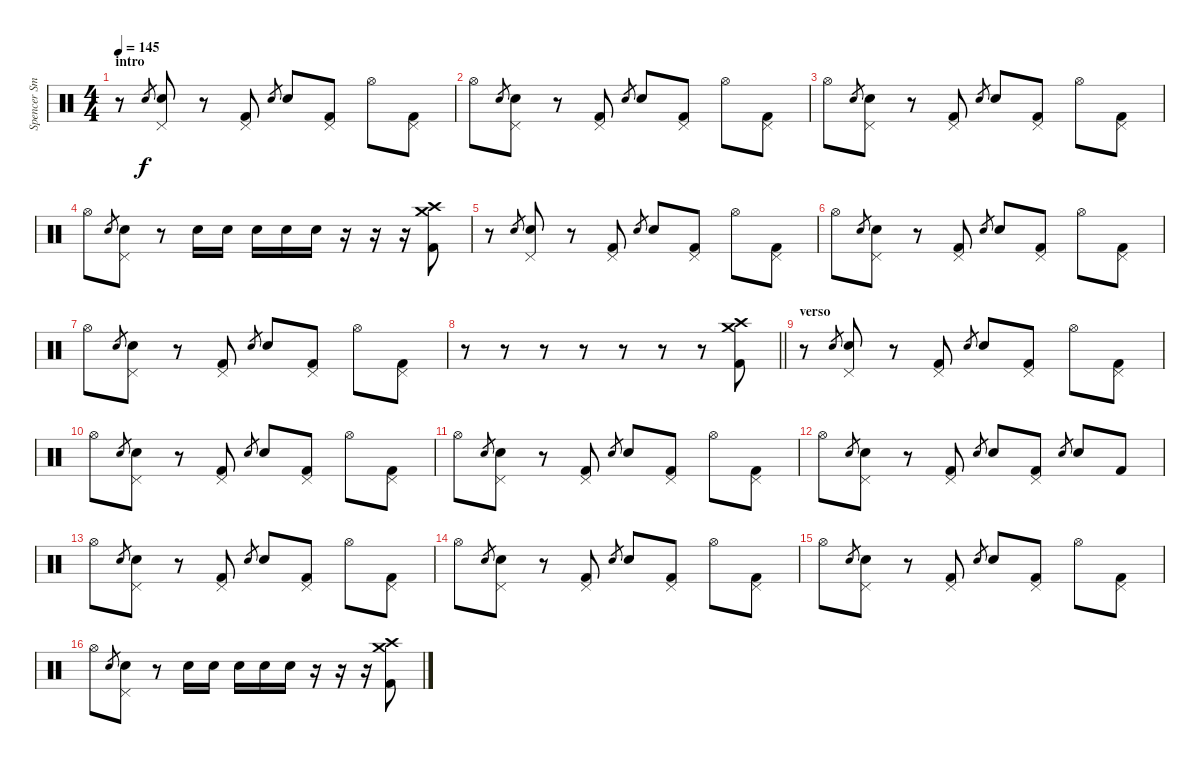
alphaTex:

\track ("Spencer Smith" "Spencer Sm") {instrument percussion}
\staff {score}
\articulation defaults
\ts (4 4)
\section ("" "intro")
\tempo 145
\clef neutral
\ks c
r.8{dy f} "Electric Snare (hit)".8{gr} ("Pedal Hi-Hat (hit)" "Electric Snare (hit)").8 r.8 ("Pedal Hi-Hat (hit)" "Kick (hit) 2").8 "Electric Snare (hit)".8{gr} "Electric Snare (hit)".8 ("Pedal Hi-Hat (hit)" "Kick (hit) 2").8 "Hi-Hat (open)".8 ("Pedal Hi-Hat (hit)" "Kick (hit) 2").8 |
"Hi-Hat (open)".8 "Electric Snare (hit)".8{gr} ("Pedal Hi-Hat (hit)" "Electric Snare (hit)").8 r.8 ("Pedal Hi-Hat (hit)" "Kick (hit) 2").8 "Electric Snare (hit)".8{gr} "Electric Snare (hit)".8 ("Pedal Hi-Hat (hit)" "Kick (hit) 2").8 "Hi-Hat (open)".8 ("Pedal Hi-Hat (hit)" "Kick (hit) 2").8 |
"Hi-Hat (open)".8 "Electric Snare (hit)".8{gr} ("Pedal Hi-Hat (hit)" "Electric Snare (hit)").8 r.8 ("Pedal Hi-Hat (hit)" "Kick (hit) 2").8 "Electric Snare (hit)".8{gr} "Electric Snare (hit)".8 ("Pedal Hi-Hat (hit)" "Kick (hit) 2").8 "Hi-Hat (open)".8 ("Pedal Hi-Hat (hit)" "Kick (hit) 2").8 |
"Hi-Hat (open)".8 "Electric Snare (hit)".8{gr} ("Pedal Hi-Hat (hit)" "Electric Snare (hit)").8 r.8 "Electric Snare (hit)".16 "Electric Snare (hit)".16 "Electric Snare (hit)".16 "Electric Snare (hit)".16 "Electric Snare (hit)".16 r.16 r.16 r.16 ("Crash medium (hit)" "Crash high (hit)" "Kick (hit) 2").8 |
r.8 "Electric Snare (hit)".8{gr} ("Pedal Hi-Hat (hit)" "Electric Snare (hit)").8 r.8 ("Pedal Hi-Hat (hit)" "Kick (hit) 2").8 "Electric Snare (hit)".8{gr} "Electric Snare (hit)".8 ("Pedal Hi-Hat (hit)" "Kick (hit) 2").8 "Hi-Hat (open)".8 ("Pedal Hi-Hat (hit)" "Kick (hit) 2").8 |
"Hi-Hat (open)".8 "Electric Snare (hit)".8{gr} ("Pedal Hi-Hat (hit)" "Electric Snare (hit)").8 r.8 ("Pedal Hi-Hat (hit)" "Kick (hit) 2").8 "Electric Snare (hit)".8{gr} "Electric Snare (hit)".8 ("Pedal Hi-Hat (hit)" "Kick (hit) 2").8 "Hi-Hat (open)".8 ("Pedal Hi-Hat (hit)" "Kick (hit) 2").8 |
"Hi-Hat (open)".8 "Electric Snare (hit)".8{gr} ("Pedal Hi-Hat (hit)" "Electric Snare (hit)").8 r.8 ("Pedal Hi-Hat (hit)" "Kick (hit) 2").8 "Electric Snare (hit)".8{gr} "Electric Snare (hit)".8 ("Pedal Hi-Hat (hit)" "Kick (hit) 2").8 "Hi-Hat (open)".8 ("Pedal Hi-Hat (hit)" "Kick (hit) 2").8 |
\barLineRight lightlight
r.8 r.8 r.8 r.8 r.8 r.8 r.8 ("Crash medium (hit)" "Crash high (hit)" "Kick (hit) 2").8 |
\section ("" "verso")
r.8 "Electric Snare (hit)".8{gr} ("Pedal Hi-Hat (hit)" "Electric Snare (hit)").8 r.8 ("Pedal Hi-Hat (hit)" "Kick (hit) 2").8 "Electric Snare (hit)".8{gr} "Electric Snare (hit)".8 ("Pedal Hi-Hat (hit)" "Kick (hit) 2").8 "Hi-Hat (open)".8 ("Pedal Hi-Hat (hit)" "Kick (hit) 2").8 |
"Hi-Hat (open)".8 "Electric Snare (hit)".8{gr} ("Pedal Hi-Hat (hit)" "Electric Snare (hit)").8 r.8 ("Pedal Hi-Hat (hit)" "Kick (hit) 2").8 "Electric Snare (hit)".8{gr} "Electric Snare (hit)".8 ("Pedal Hi-Hat (hit)" "Kick (hit) 2").8 "Hi-Hat (open)".8 ("Pedal Hi-Hat (hit)" "Kick (hit) 2").8 |
"Hi-Hat (open)".8 "Electric Snare (hit)".8{gr} ("Pedal Hi-Hat (hit)" "Electric Snare (hit)").8 r.8 ("Pedal Hi-Hat (hit)" "Kick (hit) 2").8 "Electric Snare (hit)".8{gr} "Electric Snare (hit)".8 ("Pedal Hi-Hat (hit)" "Kick (hit) 2").8 "Hi-Hat (open)".8 ("Pedal Hi-Hat (hit)" "Kick (hit) 2").8 |
"Hi-Hat (open)".8 "Electric Snare (hit)".8{gr} ("Pedal Hi-Hat (hit)" "Electric Snare (hit)").8 r.8 ("Pedal Hi-Hat (hit)" "Kick (hit) 2").8 "Electric Snare (hit)".8{gr} "Electric Snare (hit)".8 ("Pedal Hi-Hat (hit)" "Kick (hit) 2").8 "Electric Snare (hit)".8{gr} "Electric Snare (hit)".8 "Kick (hit) 2".8 |
"Hi-Hat (open)".8 "Electric Snare (hit)".8{gr} ("Pedal Hi-Hat (hit)" "Electric Snare (hit)").8 r.8 ("Pedal Hi-Hat (hit)" "Kick (hit) 2").8 "Electric Snare (hit)".8{gr} "Electric Snare (hit)".8 ("Pedal Hi-Hat (hit)" "Kick (hit) 2").8 "Hi-Hat (open)".8 ("Pedal Hi-Hat (hit)" "Kick (hit) 2").8 |
"Hi-Hat (open)".8 "Electric Snare (hit)".8{gr} ("Pedal Hi-Hat (hit)" "Electric Snare (hit)").8 r.8 ("Pedal Hi-Hat (hit)" "Kick (hit) 2").8 "Electric Snare (hit)".8{gr} "Electric Snare (hit)".8 ("Pedal Hi-Hat (hit)" "Kick (hit) 2").8 "Hi-Hat (open)".8 ("Pedal Hi-Hat (hit)" "Kick (hit) 2").8 |
"Hi-Hat (open)".8 "Electric Snare (hit)".8{gr} ("Pedal Hi-Hat (hit)" "Electric Snare (hit)").8 r.8 ("Pedal Hi-Hat (hit)" "Kick (hit) 2").8 "Electric Snare (hit)".8{gr} "Electric Snare (hit)".8 ("Pedal Hi-Hat (hit)" "Kick (hit) 2").8 "Hi-Hat (open)".8 ("Pedal Hi-Hat (hit)" "Kick (hit) 2").8 |
"Hi-Hat (open)".8 "Electric Snare (hit)".8{gr} ("Pedal Hi-Hat (hit)" "Electric Snare (hit)").8 r.8 "Electric Snare (hit)".16 "Electric Snare (hit)".16 "Electric Snare (hit)".16 "Electric Snare (hit)".16 "Electric Snare (hit)".16 r.16 r.16 r.16 ("Crash medium (hit)" "Crash high (hit)" "Kick (hit) 2").8
